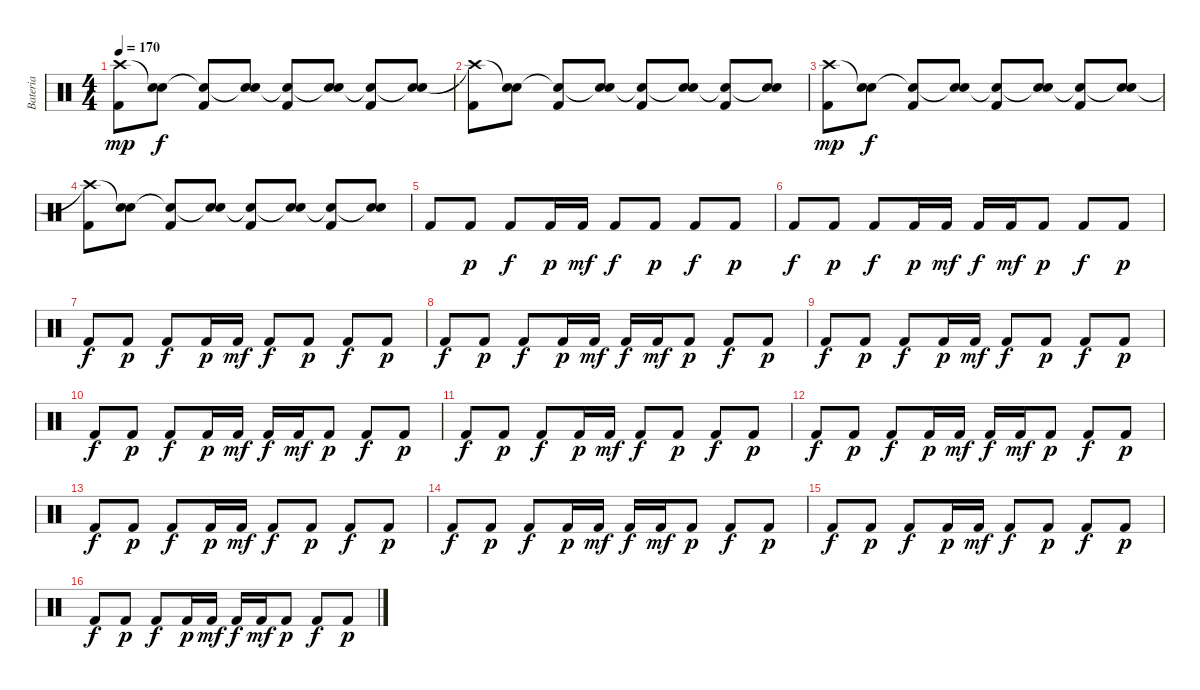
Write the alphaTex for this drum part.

\track ("Bateria" "Bateria") {instrument percussion}
\staff {score}
\articulation defaults
\ts (4 4)
\tempo 170
\clef neutral
\ks c
("Kick (hit) 2" "Crash high (hit)").8{dy mp} ("Electric Snare (hit)" "Snare (hit)"{t}).8{dy f} ("Kick (hit) 2" "Snare (hit)"{t}).8 ("Electric Snare (hit)" "Snare (hit)"{t}).8 ("Kick (hit) 2" "Snare (hit)"{t}).8 ("Electric Snare (hit)" "Snare (hit)"{t}).8 ("Kick (hit) 2" "Snare (hit)"{t}).8 ("Electric Snare (hit)" "Snare (hit)"{t}).8 |
("Kick (hit) 2" "Crash high (hit)"{t}).8 ("Electric Snare (hit)" "Snare (hit)"{t}).8 ("Kick (hit) 2" "Snare (hit)"{t}).8 ("Electric Snare (hit)" "Snare (hit)"{t}).8 ("Kick (hit) 2" "Snare (hit)"{t}).8 ("Electric Snare (hit)" "Snare (hit)"{t}).8 ("Kick (hit) 2" "Snare (hit)"{t}).8 ("Electric Snare (hit)" "Snare (hit)"{t}).8 |
("Kick (hit) 2" "Crash high (hit)").8{dy mp} ("Electric Snare (hit)" "Snare (hit)"{t}).8{dy f} ("Kick (hit) 2" "Snare (hit)"{t}).8 ("Electric Snare (hit)" "Snare (hit)"{t}).8 ("Kick (hit) 2" "Snare (hit)"{t}).8 ("Electric Snare (hit)" "Snare (hit)"{t}).8 ("Kick (hit) 2" "Snare (hit)"{t}).8 ("Electric Snare (hit)" "Snare (hit)"{t}).8 |
("Kick (hit) 2" "Crash high (hit)"{t}).8 ("Electric Snare (hit)" "Snare (hit)"{t}).8 ("Kick (hit) 2" "Snare (hit)"{t}).8 ("Electric Snare (hit)" "Snare (hit)"{t}).8 ("Kick (hit) 2" "Snare (hit)"{t}).8 ("Electric Snare (hit)" "Snare (hit)"{t}).8 ("Kick (hit) 2" "Snare (hit)"{t}).8 ("Electric Snare (hit)" "Snare (hit)"{t}).8 |
"Kick (hit) 2".8 "Kick (hit) 2".8{dy p} "Kick (hit) 2".8{dy f} "Kick (hit) 2".16{dy p} "Kick (hit) 2".16{dy mf} "Kick (hit) 2".8{dy f} "Kick (hit) 2".8{dy p} "Kick (hit) 2".8{dy f} "Kick (hit) 2".8{dy p} |
"Kick (hit) 2".8{dy f} "Kick (hit) 2".8{dy p} "Kick (hit) 2".8{dy f} "Kick (hit) 2".16{dy p} "Kick (hit) 2".16{dy mf} "Kick (hit) 2".16{dy f} "Kick (hit) 2".16{dy mf} "Kick (hit) 2".8{dy p} "Kick (hit) 2".8{dy f} "Kick (hit) 2".8{dy p} |
"Kick (hit) 2".8{dy f} "Kick (hit) 2".8{dy p} "Kick (hit) 2".8{dy f} "Kick (hit) 2".16{dy p} "Kick (hit) 2".16{dy mf} "Kick (hit) 2".8{dy f} "Kick (hit) 2".8{dy p} "Kick (hit) 2".8{dy f} "Kick (hit) 2".8{dy p} |
"Kick (hit) 2".8{dy f} "Kick (hit) 2".8{dy p} "Kick (hit) 2".8{dy f} "Kick (hit) 2".16{dy p} "Kick (hit) 2".16{dy mf} "Kick (hit) 2".16{dy f} "Kick (hit) 2".16{dy mf} "Kick (hit) 2".8{dy p} "Kick (hit) 2".8{dy f} "Kick (hit) 2".8{dy p} |
"Kick (hit) 2".8{dy f} "Kick (hit) 2".8{dy p} "Kick (hit) 2".8{dy f} "Kick (hit) 2".16{dy p} "Kick (hit) 2".16{dy mf} "Kick (hit) 2".8{dy f} "Kick (hit) 2".8{dy p} "Kick (hit) 2".8{dy f} "Kick (hit) 2".8{dy p} |
"Kick (hit) 2".8{dy f} "Kick (hit) 2".8{dy p} "Kick (hit) 2".8{dy f} "Kick (hit) 2".16{dy p} "Kick (hit) 2".16{dy mf} "Kick (hit) 2".16{dy f} "Kick (hit) 2".16{dy mf} "Kick (hit) 2".8{dy p} "Kick (hit) 2".8{dy f} "Kick (hit) 2".8{dy p} |
"Kick (hit) 2".8{dy f} "Kick (hit) 2".8{dy p} "Kick (hit) 2".8{dy f} "Kick (hit) 2".16{dy p} "Kick (hit) 2".16{dy mf} "Kick (hit) 2".8{dy f} "Kick (hit) 2".8{dy p} "Kick (hit) 2".8{dy f} "Kick (hit) 2".8{dy p} |
"Kick (hit) 2".8{dy f} "Kick (hit) 2".8{dy p} "Kick (hit) 2".8{dy f} "Kick (hit) 2".16{dy p} "Kick (hit) 2".16{dy mf} "Kick (hit) 2".16{dy f} "Kick (hit) 2".16{dy mf} "Kick (hit) 2".8{dy p} "Kick (hit) 2".8{dy f} "Kick (hit) 2".8{dy p} |
"Kick (hit) 2".8{dy f} "Kick (hit) 2".8{dy p} "Kick (hit) 2".8{dy f} "Kick (hit) 2".16{dy p} "Kick (hit) 2".16{dy mf} "Kick (hit) 2".8{dy f} "Kick (hit) 2".8{dy p} "Kick (hit) 2".8{dy f} "Kick (hit) 2".8{dy p} |
"Kick (hit) 2".8{dy f} "Kick (hit) 2".8{dy p} "Kick (hit) 2".8{dy f} "Kick (hit) 2".16{dy p} "Kick (hit) 2".16{dy mf} "Kick (hit) 2".16{dy f} "Kick (hit) 2".16{dy mf} "Kick (hit) 2".8{dy p} "Kick (hit) 2".8{dy f} "Kick (hit) 2".8{dy p} |
"Kick (hit) 2".8{dy f} "Kick (hit) 2".8{dy p} "Kick (hit) 2".8{dy f} "Kick (hit) 2".16{dy p} "Kick (hit) 2".16{dy mf} "Kick (hit) 2".8{dy f} "Kick (hit) 2".8{dy p} "Kick (hit) 2".8{dy f} "Kick (hit) 2".8{dy p} |
"Kick (hit) 2".8{dy f} "Kick (hit) 2".8{dy p} "Kick (hit) 2".8{dy f} "Kick (hit) 2".16{dy p} "Kick (hit) 2".16{dy mf} "Kick (hit) 2".16{dy f} "Kick (hit) 2".16{dy mf} "Kick (hit) 2".8{dy p} "Kick (hit) 2".8{dy f} "Kick (hit) 2".8{dy p}
